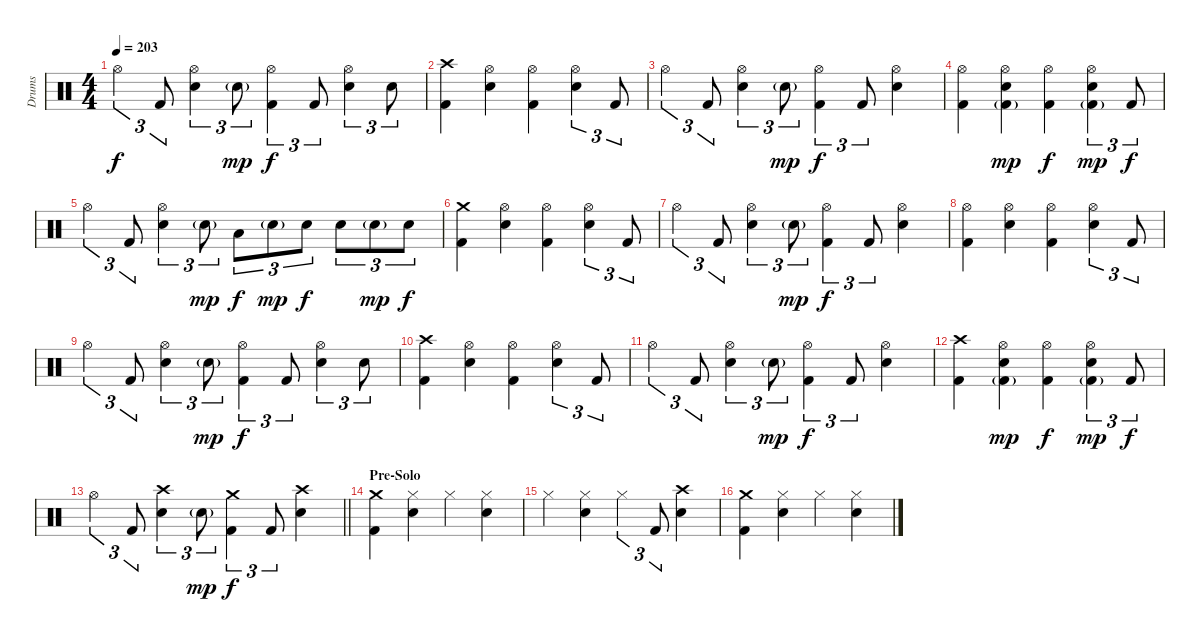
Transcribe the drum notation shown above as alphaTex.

\track ("Drums" "Drums") {instrument percussion}
\staff {score}
\articulation defaults
\ts (4 4)
\tempo 203
\clef neutral
\ks c "Hi-Hat (open)".4{tu (3 2) dy f} "Kick (hit) 2".8{tu (3 2)}
("Hi-Hat (open)" "Electric Snare (hit)").4{tu (3 2)} "Electric Snare (hit)"{g}.8{tu (3 2) dy mp} ("Hi-Hat (open)" "Kick (hit) 2").4{tu (3 2) dy f} "Kick (hit) 2".8{tu (3 2)} ("Hi-Hat (open)" "Electric Snare (hit)").4{tu (3 2)} "Electric Snare (hit)".8{tu (3 2)} |
("Crash high (hit)" "Kick (hit) 2").4 ("Hi-Hat (open)" "Electric Snare (hit)").4 ("Hi-Hat (open)" "Kick (hit) 2").4 ("Hi-Hat (open)" "Electric Snare (hit)").4{tu (3 2)} "Kick (hit) 2".8{tu (3 2)} |
"Hi-Hat (open)".4{tu (3 2)} "Kick (hit) 2".8{tu (3 2)} ("Hi-Hat (open)" "Electric Snare (hit)").4{tu (3 2)} "Electric Snare (hit)"{g}.8{tu (3 2) dy mp} ("Hi-Hat (open)" "Kick (hit) 2").4{tu (3 2) dy f} "Kick (hit) 2".8{tu (3 2)} ("Hi-Hat (open)" "Electric Snare (hit)").4 |
("Hi-Hat (open)" "Kick (hit) 2").4 ("Hi-Hat (open)" "Electric Snare (hit)" "Kick (hit) 2"{g}).4{dy mp} ("Hi-Hat (open)" "Kick (hit) 2").4{dy f} ("Hi-Hat (open)" "Electric Snare (hit)" "Kick (hit) 2"{g}).4{tu (3 2) dy mp} "Kick (hit) 2".8{tu (3 2) dy f} |
"Hi-Hat (open)".4{tu (3 2)} "Kick (hit) 2".8{tu (3 2)} ("Hi-Hat (open)" "Electric Snare (hit)").4{tu (3 2)} "Electric Snare (hit)"{g}.8{tu (3 2) dy mp} "Low Tom (hit)".8{tu (3 2) dy f} "Electric Snare (hit)"{g}.8{tu (3 2) dy mp} "Electric Snare (hit)".8{tu (3 2) dy f} "Electric Snare (hit)".8{tu (3 2)} "Electric Snare (hit)"{g}.8{tu (3 2) dy mp} "Electric Snare (hit)".8{tu (3 2) dy f} |
("Crash medium (hit)" "Kick (hit) 2").4 ("Hi-Hat (open)" "Electric Snare (hit)").4 ("Hi-Hat (open)" "Kick (hit) 2").4 ("Hi-Hat (open)" "Electric Snare (hit)").4{tu (3 2)} "Kick (hit) 2".8{tu (3 2)} |
"Hi-Hat (open)".4{tu (3 2)} "Kick (hit) 2".8{tu (3 2)} ("Hi-Hat (open)" "Electric Snare (hit)").4{tu (3 2)} "Electric Snare (hit)"{g}.8{tu (3 2) dy mp} ("Hi-Hat (open)" "Kick (hit) 2").4{tu (3 2) dy f} "Kick (hit) 2".8{tu (3 2)} ("Hi-Hat (open)" "Electric Snare (hit)").4 |
("Hi-Hat (open)" "Kick (hit) 2").4 ("Hi-Hat (open)" "Electric Snare (hit)").4 ("Hi-Hat (open)" "Kick (hit) 2").4 ("Hi-Hat (open)" "Electric Snare (hit)").4{tu (3 2)} "Kick (hit) 2".8{tu (3 2)} |
"Hi-Hat (open)".4{tu (3 2)} "Kick (hit) 2".8{tu (3 2)} ("Hi-Hat (open)" "Electric Snare (hit)").4{tu (3 2)} "Electric Snare (hit)"{g}.8{tu (3 2) dy mp} ("Hi-Hat (open)" "Kick (hit) 2").4{tu (3 2) dy f} "Kick (hit) 2".8{tu (3 2)} ("Hi-Hat (open)" "Electric Snare (hit)").4{tu (3 2)} "Electric Snare (hit)".8{tu (3 2)} |
("Crash high (hit)" "Kick (hit) 2").4 ("Hi-Hat (open)" "Electric Snare (hit)").4 ("Hi-Hat (open)" "Kick (hit) 2").4 ("Hi-Hat (open)" "Electric Snare (hit)").4{tu (3 2)} "Kick (hit) 2".8{tu (3 2)} |
"Hi-Hat (open)".4{tu (3 2)} "Kick (hit) 2".8{tu (3 2)} ("Hi-Hat (open)" "Electric Snare (hit)").4{tu (3 2)} "Electric Snare (hit)"{g}.8{tu (3 2) dy mp} ("Hi-Hat (open)" "Kick (hit) 2").4{tu (3 2) dy f} "Kick (hit) 2".8{tu (3 2)} ("Hi-Hat (open)" "Electric Snare (hit)").4 |
("Crash high (hit)" "Kick (hit) 2").4 ("Hi-Hat (open)" "Electric Snare (hit)" "Kick (hit) 2"{g}).4{dy mp} ("Hi-Hat (open)" "Kick (hit) 2").4{dy f} ("Hi-Hat (open)" "Electric Snare (hit)" "Kick (hit) 2"{g}).4{tu (3 2) dy mp} "Kick (hit) 2".8{tu (3 2) dy f} |
\barLineRight lightlight "Hi-Hat (open)".4{tu (3 2)} "Kick (hit) 2".8{tu (3 2)}
("Crash high (hit)" "Electric Snare (hit)").4{tu (3 2)} "Electric Snare (hit)"{g}.8{tu (3 2) dy mp} ("Crash medium (hit)" "Kick (hit) 2").4{tu (3 2) dy f} "Kick (hit) 2".8{tu (3 2)} ("Crash high (hit)" "Electric Snare (hit)").4 |
\section ("" "Pre-Solo")
("Crash medium (hit)" "Kick (hit) 2").4 ("Hi-Hat (closed)" "Electric Snare (hit)").4 "Hi-Hat (closed)".4 ("Hi-Hat (closed)" "Electric Snare (hit)").4 |
"Hi-Hat (closed)".4 ("Hi-Hat (closed)" "Electric Snare (hit)").4 "Hi-Hat (closed)".4{tu (3 2)} "Kick (hit) 2".8{tu (3 2)} ("Crash high (hit)" "Electric Snare (hit)").4 |
("Crash medium (hit)" "Kick (hit) 2").4 ("Hi-Hat (closed)" "Electric Snare (hit)").4 "Hi-Hat (closed)".4 ("Hi-Hat (closed)" "Electric Snare (hit)").4
